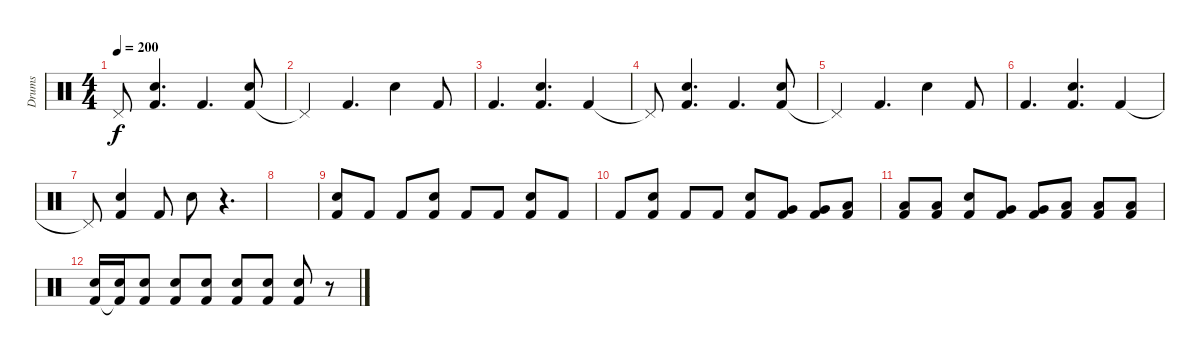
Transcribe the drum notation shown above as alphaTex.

\track ("Drums" "Drums") {instrument percussion}
\staff {score}
\articulation defaults
\ts (4 4)
\tempo 200
\clef neutral
\ks c "Pedal Hi-Hat (hit)"{t}.8{dy f}
("Kick (hit) 2" "Snare (hit) 2").4{d} "Kick (hit) 2".4{d} ("Kick (hit) 2" "Snare (hit) 2").8 |
"Pedal Hi-Hat (hit)"{t}.4 "Kick (hit) 2".4{d} "Snare (hit) 2".4 "Kick (hit) 2".8 |
"Kick (hit) 2".4{d} ("Kick (hit) 2" "Snare (hit) 2").4{d} "Kick (hit) 2".4 |
"Pedal Hi-Hat (hit)"{t}.8 ("Kick (hit) 2" "Snare (hit) 2").4{d} "Kick (hit) 2".4{d} ("Kick (hit) 2" "Snare (hit) 2").8 |
"Pedal Hi-Hat (hit)"{t}.4 "Kick (hit) 2".4{d} "Snare (hit) 2".4 "Kick (hit) 2".8 |
"Kick (hit) 2".4{d} ("Kick (hit) 2" "Snare (hit) 2").4{d} "Kick (hit) 2".4 |
"Pedal Hi-Hat (hit)"{t}.8 ("Kick (hit) 2" "Snare (hit) 2").4 "Kick (hit) 2".8 "Snare (hit) 2".8 r.4{d} |
|
("Kick (hit) 2" "Snare (hit) 2").8 "Kick (hit) 2".8 "Kick (hit) 2".8 ("Kick (hit) 2" "Snare (hit) 2").8 "Kick (hit) 2".8 "Kick (hit) 2".8 ("Kick (hit) 2" "Snare (hit) 2").8 "Kick (hit) 2".8 |
"Kick (hit) 2".8 ("Kick (hit) 2" "Snare (hit) 2").8 "Kick (hit) 2".8 "Kick (hit) 2".8 ("Kick (hit) 2" "Snare (hit) 2").8 ("Kick (hit) 2" "Very Low Tom (hit)").8 ("Kick (hit) 2" "Very Low Tom (hit)").8 ("Kick (hit) 2" "Low Floor Tom (hit)").8 |
("Kick (hit) 2" "Low Floor Tom (hit)").8 ("Kick (hit) 2" "Low Floor Tom (hit)").8 ("Kick (hit) 2" "Snare (hit) 2").8 ("Kick (hit) 2" "Very Low Tom (hit)").8 ("Kick (hit) 2" "Very Low Tom (hit)").8 ("Kick (hit) 2" "Low Floor Tom (hit)").8 ("Kick (hit) 2" "Low Floor Tom (hit)").8 ("Kick (hit) 2" "Low Floor Tom (hit)").8 |
("Kick (hit) 2" "Snare (hit) 2").16 ("Kick (hit) 2"{t} "Snare (hit) 2").16 ("Kick (hit) 2" "Snare (hit) 2").8 ("Kick (hit) 2" "Snare (hit) 2").8 ("Kick (hit) 2" "Snare (hit) 2").8 ("Kick (hit) 2" "Snare (hit) 2").8 ("Kick (hit) 2" "Snare (hit) 2").8 ("Kick (hit) 2" "Snare (hit) 2").8 r.8
